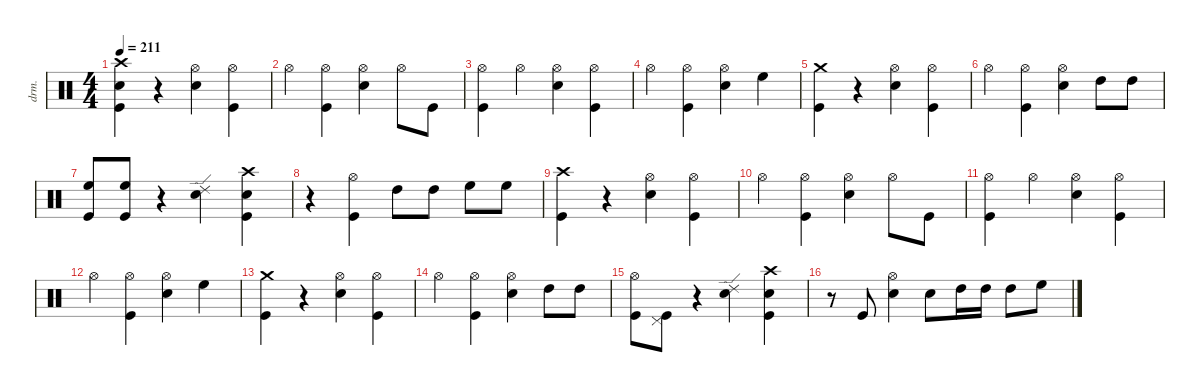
\defaultSystemsLayout 4
\hideDynamics
\bracketExtendMode nobrackets
\track ("Drums" "drm.") {instrument percussion}
\staff {score}
\articulation defaults
\ts (4 4)
\tempo 211
\clef neutral
\ks c
("Kick (hit)" "Snare (hit) 2" "Crash high (hit)"{acc #}).4{dy fff} r.4 ("Snare (hit) 2" "Hi-Hat (open)"{acc #}).4{dy ff} ("Kick (hit)" "Hi-Hat (open)"{acc #}).4 |
"Hi-Hat (open)"{acc #}.4{dy fff} ("Kick (hit)" "Hi-Hat (open)"{acc #}).4{dy ff} ("Snare (hit) 2" "Hi-Hat (open)"{acc #}).4 "Hi-Hat (open)"{acc #}.8{dy mf} "Kick (hit)".8 |
("Kick (hit)" "Hi-Hat (open)"{acc #}).4{dy fff} "Hi-Hat (open)"{acc #}.4{dy mf} ("Snare (hit) 2" "Hi-Hat (open)"{acc #}).4{dy ff} ("Kick (hit)" "Hi-Hat (open)"{acc #}).4 |
"Hi-Hat (open)"{acc #}.4{dy fff} ("Kick (hit)" "Hi-Hat (open)"{acc #}).4{dy ff} ("Snare (hit) 2" "Hi-Hat (open)"{acc #}).4 "High Floor Tom (hit)".4 |
("Kick (hit)" "Crash medium (hit)").4{dy fff} r.4 ("Snare (hit) 2" "Hi-Hat (open)"{acc #}).4{dy ff} ("Kick (hit)" "Hi-Hat (open)"{acc #}).4 |
"Hi-Hat (open)"{acc #}.4{dy fff} ("Kick (hit)" "Hi-Hat (open)"{acc #}).4{dy ff} ("Snare (hit) 2" "Hi-Hat (open)"{acc #}).4 "High Tom (hit)".8 "High Tom (hit)".8{dy mf} |
("Kick (hit)" "High Floor Tom (hit)").8{dy ff} ("Kick (hit)" "High Floor Tom (hit)").8{dy fff} r.4 ("Snare (hit) 2" "Ride (edge) 2").4{dy f} ("Kick (hit)" "Snare (hit) 2" "Crash high (hit)"{acc #}).4{dy ff} |
r.4 ("Kick (hit)" "Hi-Hat (open)"{acc #}).4{dy fff} "High Tom (hit)".8{dy ff} "High Tom (hit)".8{dy mf} "High Floor Tom (hit)".8{dy f} "High Floor Tom (hit)".8{dy mf} |
("Kick (hit)" "Crash high (hit)"{acc #}).4{dy fff} r.4 ("Snare (hit) 2" "Hi-Hat (open)"{acc #}).4{dy ff} ("Kick (hit)" "Hi-Hat (open)"{acc #}).4 |
"Hi-Hat (open)"{acc #}.4{dy fff} ("Kick (hit)" "Hi-Hat (open)"{acc #}).4{dy ff} ("Snare (hit) 2" "Hi-Hat (open)"{acc #}).4 "Hi-Hat (open)"{acc #}.8{dy mf} "Kick (hit)".8 |
("Kick (hit)" "Hi-Hat (open)"{acc #}).4{dy fff} "Hi-Hat (open)"{acc #}.4{dy mf} ("Snare (hit) 2" "Hi-Hat (open)"{acc #}).4{dy ff} ("Kick (hit)" "Hi-Hat (open)"{acc #}).4 |
"Hi-Hat (open)"{acc #}.4{dy fff} ("Kick (hit)" "Hi-Hat (open)"{acc #}).4{dy ff} ("Snare (hit) 2" "Hi-Hat (open)"{acc #}).4 "High Floor Tom (hit)".4 |
("Kick (hit)" "Crash medium (hit)").4{dy fff} r.4 ("Snare (hit) 2" "Hi-Hat (open)"{acc #}).4{dy ff} ("Kick (hit)" "Hi-Hat (open)"{acc #}).4 |
"Hi-Hat (open)"{acc #}.4{dy fff} ("Kick (hit)" "Hi-Hat (open)"{acc #}).4{dy ff} ("Snare (hit) 2" "Hi-Hat (open)"{acc #}).4 "High Tom (hit)".8 "High Tom (hit)".8{dy mf} |
("Kick (hit)" "Hi-Hat (open)"{acc #}).8{dy ff} ("Kick (hit)" "Pedal Hi-Hat (hit)"{acc #}).8{dy fff} r.4 ("Snare (hit) 2" "Ride (edge) 2").4{dy f} ("Kick (hit)" "Snare (hit) 2" "Crash high (hit)"{acc #}).4{dy ff} |
r.8 "Kick (hit)".8{dy mf} ("Snare (hit) 2" "Hi-Hat (open)"{acc #}).4{dy fff} "Snare (hit) 2".8 "High Tom (hit)".16{dy ff} "High Tom (hit)".16{dy pp} "High Tom (hit)".8{dy f} "High Floor Tom (hit)".8{dy mp}
